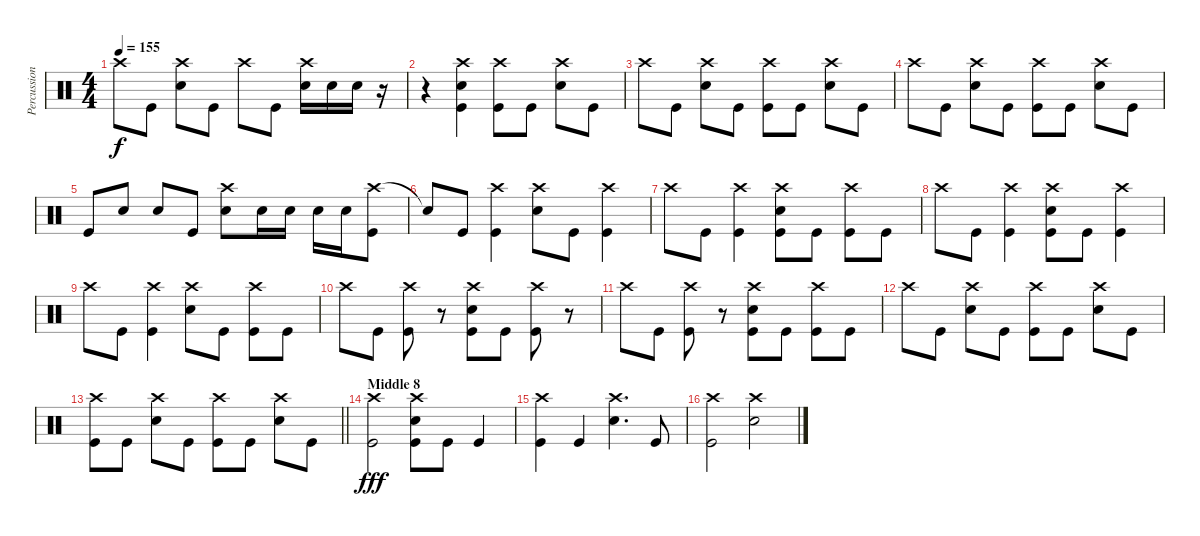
\track ("Percussion" "Percussion") {instrument percussion}
\staff {score}
\articulation defaults
\ts (4 4)
\tempo 155
\clef neutral
\ks c "Crash high (hit)".8{dy f} "Kick (hit)".8
("Crash high (hit)" "Snare (hit) 2").8 "Kick (hit)".8 "Crash high (hit)".8 "Kick (hit)".8 ("Crash high (hit)" "Snare (hit) 2").16 "Snare (hit) 2".16 "Snare (hit) 2".16 r.16 |
r.4 ("Crash high (hit)" "Snare (hit) 2" "Kick (hit)").4 ("Crash high (hit)" "Kick (hit)").8 "Kick (hit)".8 ("Crash high (hit)" "Snare (hit) 2").8 "Kick (hit)".8 |
"Crash high (hit)".8 "Kick (hit)".8 ("Crash high (hit)" "Snare (hit) 2").8 "Kick (hit)".8 ("Crash high (hit)" "Kick (hit)").8 "Kick (hit)".8 ("Crash high (hit)" "Snare (hit) 2").8 "Kick (hit)".8 |
"Crash high (hit)".8 "Kick (hit)".8 ("Crash high (hit)" "Snare (hit) 2").8 "Kick (hit)".8 ("Crash high (hit)" "Kick (hit)").8 "Kick (hit)".8 ("Crash high (hit)" "Snare (hit) 2").8 "Kick (hit)".8 |
"Kick (hit)".8 "Snare (hit) 2".8 "Snare (hit) 2".8 "Kick (hit)".8 ("Crash high (hit)" "Snare (hit) 2").8 "Snare (hit) 2".16 "Snare (hit) 2".16 "Snare (hit) 2".16 "Snare (hit) 2".16 ("Crash high (hit)" "Kick (hit)").8 |
"Snare (hit)"{t}.8 "Kick (hit)".8 ("Crash high (hit)" "Kick (hit)").4 ("Crash high (hit)" "Snare (hit) 2").8 "Kick (hit)".8 ("Crash high (hit)" "Kick (hit)").4 |
"Crash high (hit)".8 "Kick (hit)".8 ("Crash high (hit)" "Kick (hit)").4 ("Crash high (hit)" "Snare (hit) 2" "Kick (hit)").8 "Kick (hit)".8 ("Crash high (hit)" "Kick (hit)").8 "Kick (hit)".8 |
"Crash high (hit)".8 "Kick (hit)".8 ("Crash high (hit)" "Kick (hit)").4 ("Crash high (hit)" "Snare (hit) 2" "Kick (hit)").8 "Kick (hit)".8 ("Crash high (hit)" "Kick (hit)").4 |
"Crash high (hit)".8 "Kick (hit)".8 ("Crash high (hit)" "Kick (hit)").4 ("Crash high (hit)" "Snare (hit) 2").8 "Kick (hit)".8 ("Crash high (hit)" "Kick (hit)").8 "Kick (hit)".8 |
"Crash high (hit)".8 "Kick (hit)".8 ("Crash high (hit)" "Kick (hit)").8 r.8 ("Crash high (hit)" "Snare (hit) 2" "Kick (hit)").8 "Kick (hit)".8 ("Crash high (hit)" "Kick (hit)").8 r.8 |
"Crash high (hit)".8 "Kick (hit)".8 ("Crash high (hit)" "Kick (hit)").8 r.8 ("Crash high (hit)" "Snare (hit) 2" "Kick (hit)").8 "Kick (hit)".8 ("Crash high (hit)" "Kick (hit)").8 "Kick (hit)".8 |
"Crash high (hit)".8 "Kick (hit)".8 ("Crash high (hit)" "Snare (hit) 2").8 "Kick (hit)".8 ("Crash high (hit)" "Kick (hit)").8 "Kick (hit)".8 ("Crash high (hit)" "Snare (hit) 2").8 "Kick (hit)".8 |
\barLineRight lightlight
("Crash high (hit)" "Kick (hit)").8 "Kick (hit)".8 ("Crash high (hit)" "Snare (hit) 2").8 "Kick (hit)".8 ("Crash high (hit)" "Kick (hit)").8 "Kick (hit)".8 ("Crash high (hit)" "Snare (hit) 2").8 "Kick (hit)".8 |
\section ("" "Middle 8")
("Crash high (hit)" "Kick (hit)").2{dy fff} ("Crash high (hit)" "Snare (hit) 2" "Kick (hit)").8 "Kick (hit)".8 "Kick (hit)".4 |
("Crash high (hit)" "Kick (hit)").4 "Kick (hit)".4 ("Crash high (hit)" "Snare (hit) 2").4{d} "Kick (hit)".8 |
("Crash high (hit)" "Kick (hit)").2 ("Crash high (hit)" "Snare (hit) 2").2
